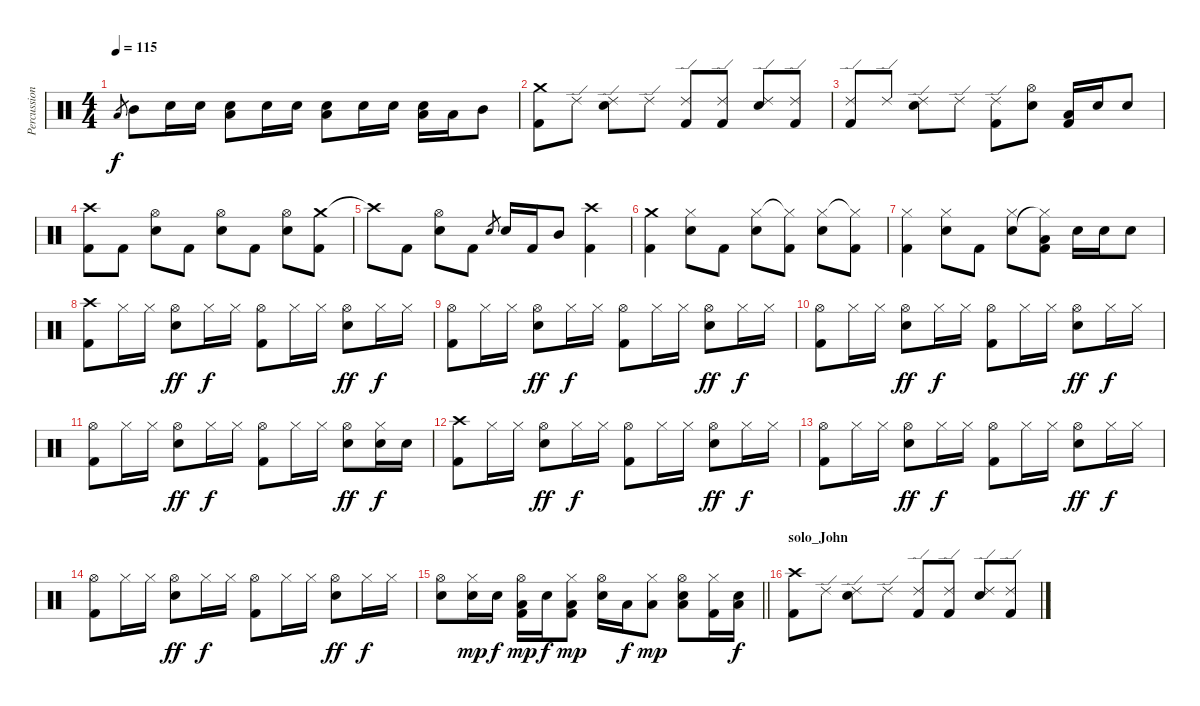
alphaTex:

\track ("Percussion" "Percussion") {instrument percussion}
\staff {score}
\articulation defaults
\ts (4 4)
\tempo 115
\clef neutral
\ks c "Low Tom (hit)".8{gr dy f} "Mid Tom (hit)".8 "Electric Snare (hit)".16 "Electric Snare (hit)".16
("Low Floor Tom (hit)" "Electric Snare (hit)").8 "Electric Snare (hit)".16 "Electric Snare (hit)".16 ("Low Floor Tom (hit)" "Electric Snare (hit)").8 "Electric Snare (hit)".16 "Electric Snare (hit)".16 ("Low Floor Tom (hit)" "Electric Snare (hit)").16 "Low Tom (hit)".16 "Mid Tom (hit)".8 |
("Crash medium (hit)" "Kick (hit) 2").8 "Ride (edge) 2".8 ("Ride (edge) 2" "Electric Snare (hit)").8 "Ride (edge) 2".8 ("Ride (edge) 2" "Kick (hit) 2").8 ("Ride (edge) 2" "Kick (hit) 2").8 ("Ride (edge) 2" "Electric Snare (hit)").8 ("Ride (edge) 2" "Kick (hit) 2").8 |
("Ride (edge) 2" "Kick (hit) 2").8 "Ride (edge) 2".8 ("Ride (edge) 2" "Electric Snare (hit)").8 "Ride (edge) 2".8 ("Ride (edge) 2" "Kick (hit) 2").8 ("Hi-Hat (open)" "Electric Snare (hit)").8 ("Low Floor Tom (hit)" "Kick (hit) 2").16 "Electric Snare (hit)".16 "Electric Snare (hit)".8 |
("Crash high (hit)" "Kick (hit) 2").8 "Kick (hit) 2".8 ("Hi-Hat (open)" "Electric Snare (hit)").8 "Kick (hit) 2".8 ("Hi-Hat (open)" "Electric Snare (hit)").8 "Kick (hit) 2".8 ("Hi-Hat (open)" "Electric Snare (hit)").8 ("Crash medium (hit)" "Kick (hit) 2").8 |
"Crash high (hit)"{t}.8 "Kick (hit) 2".8 ("Hi-Hat (open)" "Electric Snare (hit)").8 "Kick (hit) 2".8 "Electric Snare (hit)".8{gr} "Electric Snare (hit)".16 "Kick (hit) 2".16 "Mid Tom (hit)".8 ("Crash high (hit)" "Kick (hit) 2").4 |
("Crash medium (hit)" "Kick (hit) 2").4 ("Hi-Hat (closed)" "Electric Snare (hit)").8 "Kick (hit) 2".8 ("Hi-Hat (closed)" "Electric Snare (hit)").8 ("Hi-Hat (closed)"{t} "Kick (hit) 2").8 ("Hi-Hat (closed)" "Electric Snare (hit)").8 ("Hi-Hat (closed)"{t} "Kick (hit) 2").8 |
("Hi-Hat (closed)" "Kick (hit) 2").4 ("Hi-Hat (closed)" "Electric Snare (hit)").8 "Kick (hit) 2".8 ("Hi-Hat (closed)" "Electric Snare (hit)").8 ("Low Tom (hit)" "Hi-Hat (closed)"{t} "Kick (hit) 2").8 "Electric Snare (hit)".16 "Electric Snare (hit)".16 "Electric Snare (hit)".8 |
("Crash high (hit)" "Kick (hit) 2").8 "Hi-Hat (closed)".16 "Hi-Hat (closed)".16 ("Hi-Hat (open)" "Electric Snare (hit)").8{dy ff} "Hi-Hat (closed)".16{dy f} "Hi-Hat (closed)".16 ("Hi-Hat (open)" "Kick (hit) 2").8 "Hi-Hat (closed)".16 "Hi-Hat (closed)".16 ("Hi-Hat (open)" "Electric Snare (hit)").8{dy ff} "Hi-Hat (closed)".16{dy f} "Hi-Hat (closed)".16 |
("Hi-Hat (open)" "Kick (hit) 2").8 "Hi-Hat (closed)".16 "Hi-Hat (closed)".16 ("Hi-Hat (open)" "Electric Snare (hit)").8{dy ff} "Hi-Hat (closed)".16{dy f} "Hi-Hat (closed)".16 ("Hi-Hat (open)" "Kick (hit) 2").8 "Hi-Hat (closed)".16 "Hi-Hat (closed)".16 ("Hi-Hat (open)" "Electric Snare (hit)").8{dy ff} "Hi-Hat (closed)".16{dy f} "Hi-Hat (closed)".16 |
("Hi-Hat (open)" "Kick (hit) 2").8 "Hi-Hat (closed)".16 "Hi-Hat (closed)".16 ("Hi-Hat (open)" "Electric Snare (hit)").8{dy ff} "Hi-Hat (closed)".16{dy f} "Hi-Hat (closed)".16 ("Hi-Hat (open)" "Kick (hit) 2").8 "Hi-Hat (closed)".16 "Hi-Hat (closed)".16 ("Hi-Hat (open)" "Electric Snare (hit)").8{dy ff} "Hi-Hat (closed)".16{dy f} "Hi-Hat (closed)".16 |
("Hi-Hat (open)" "Kick (hit) 2").8 "Hi-Hat (closed)".16 "Hi-Hat (closed)".16 ("Hi-Hat (open)" "Electric Snare (hit)").8{dy ff} "Hi-Hat (closed)".16{dy f} "Hi-Hat (closed)".16 ("Hi-Hat (open)" "Kick (hit) 2").8 "Hi-Hat (closed)".16 "Hi-Hat (closed)".16 ("Hi-Hat (open)" "Electric Snare (hit)").8{dy ff} ("Hi-Hat (closed)" "Electric Snare (hit)").16{dy f} "Electric Snare (hit)".16 |
("Crash high (hit)" "Kick (hit) 2").8 "Hi-Hat (closed)".16 "Hi-Hat (closed)".16 ("Hi-Hat (open)" "Electric Snare (hit)").8{dy ff} "Hi-Hat (closed)".16{dy f} "Hi-Hat (closed)".16 ("Hi-Hat (open)" "Kick (hit) 2").8 "Hi-Hat (closed)".16 "Hi-Hat (closed)".16 ("Hi-Hat (open)" "Electric Snare (hit)").8{dy ff} "Hi-Hat (closed)".16{dy f} "Hi-Hat (closed)".16 |
("Hi-Hat (open)" "Kick (hit) 2").8 "Hi-Hat (closed)".16 "Hi-Hat (closed)".16 ("Hi-Hat (open)" "Electric Snare (hit)").8{dy ff} "Hi-Hat (closed)".16{dy f} "Hi-Hat (closed)".16 ("Hi-Hat (open)" "Kick (hit) 2").8 "Hi-Hat (closed)".16 "Hi-Hat (closed)".16 ("Hi-Hat (open)" "Electric Snare (hit)").8{dy ff} "Hi-Hat (closed)".16{dy f} "Hi-Hat (closed)".16 |
("Hi-Hat (open)" "Kick (hit) 2").8 "Hi-Hat (closed)".16 "Hi-Hat (closed)".16 ("Hi-Hat (open)" "Electric Snare (hit)").8{dy ff} "Hi-Hat (closed)".16{dy f} "Hi-Hat (closed)".16 ("Hi-Hat (open)" "Kick (hit) 2").8 "Hi-Hat (closed)".16 "Hi-Hat (closed)".16 ("Hi-Hat (open)" "Electric Snare (hit)").8{dy ff} "Hi-Hat (closed)".16{dy f} "Hi-Hat (closed)".16 |
\barLineRight lightlight
("Hi-Hat (open)" "Electric Snare (hit)").8 ("Hi-Hat (closed)" "Electric Snare (hit)").16{dy mp} "Electric Snare (hit)".16{dy f} ("Low Tom (hit)" "Hi-Hat (open)" "Kick (hit) 2").16{dy mp} "Electric Snare (hit)".16{dy f} ("Low Floor Tom (hit)" "Hi-Hat (closed)" "Kick (hit) 2").8{dy mp} ("Hi-Hat (open)" "Electric Snare (hit)").16 "Low Tom (hit)".16{dy f} ("Low Floor Tom (hit)" "Hi-Hat (closed)").8{dy mp} ("Low Floor Tom (hit)" "Hi-Hat (open)" "Electric Snare (hit)").8 ("Hi-Hat (closed)" "Kick (hit) 2").16 ("Low Floor Tom (hit)" "Electric Snare (hit)").16{dy f} |
\section ("" "solo_John")
("Crash high (hit)" "Kick (hit) 2").8 "Ride (edge) 2".8 ("Ride (edge) 2" "Electric Snare (hit)").8 "Ride (edge) 2".8 ("Ride (edge) 2" "Kick (hit) 2").8 ("Ride (edge) 2" "Kick (hit) 2").8 ("Ride (edge) 2" "Electric Snare (hit)").8 ("Ride (edge) 2" "Kick (hit) 2").8
